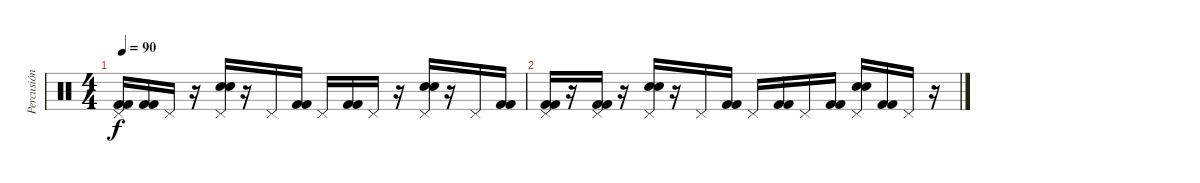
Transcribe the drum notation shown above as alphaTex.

\track ("Percusión" "Percusión") {instrument percussion}
\staff {score}
\articulation defaults
\ts (4 4)
\tempo 90
\clef neutral
\ks c
("Pedal Hi-Hat (hit)" "Kick (hit) 2" "Kick (hit) 2").16{dy f volume 2} ("Kick (hit) 2" "Kick (hit) 2").16 "Pedal Hi-Hat (hit)".16 r.16 ("Pedal Hi-Hat (hit)" "Electric Snare (hit)" "Electric Snare (hit)").16 r.16 "Pedal Hi-Hat (hit)".16 ("Kick (hit) 2" "Kick (hit) 2").16 "Pedal Hi-Hat (hit)".16 ("Kick (hit) 2" "Kick (hit) 2").16 "Pedal Hi-Hat (hit)".16 r.16 ("Pedal Hi-Hat (hit)" "Electric Snare (hit)" "Electric Snare (hit)").16 r.16 "Pedal Hi-Hat (hit)".16 ("Kick (hit) 2" "Kick (hit) 2").16 |
("Pedal Hi-Hat (hit)" "Kick (hit) 2" "Kick (hit) 2").16{volume 1} r.16 ("Pedal Hi-Hat (hit)" "Kick (hit) 2" "Kick (hit) 2").16 r.16 ("Pedal Hi-Hat (hit)" "Electric Snare (hit)" "Electric Snare (hit)").16 r.16 "Pedal Hi-Hat (hit)".16 ("Kick (hit) 2" "Kick (hit) 2").16 "Pedal Hi-Hat (hit)".16 ("Kick (hit) 2" "Kick (hit) 2").16 "Pedal Hi-Hat (hit)".16 ("Kick (hit) 2" "Kick (hit) 2").16 ("Pedal Hi-Hat (hit)" "Electric Snare (hit)" "Electric Snare (hit)").16 ("Kick (hit) 2" "Kick (hit) 2").16 "Pedal Hi-Hat (hit)".16 r.16
